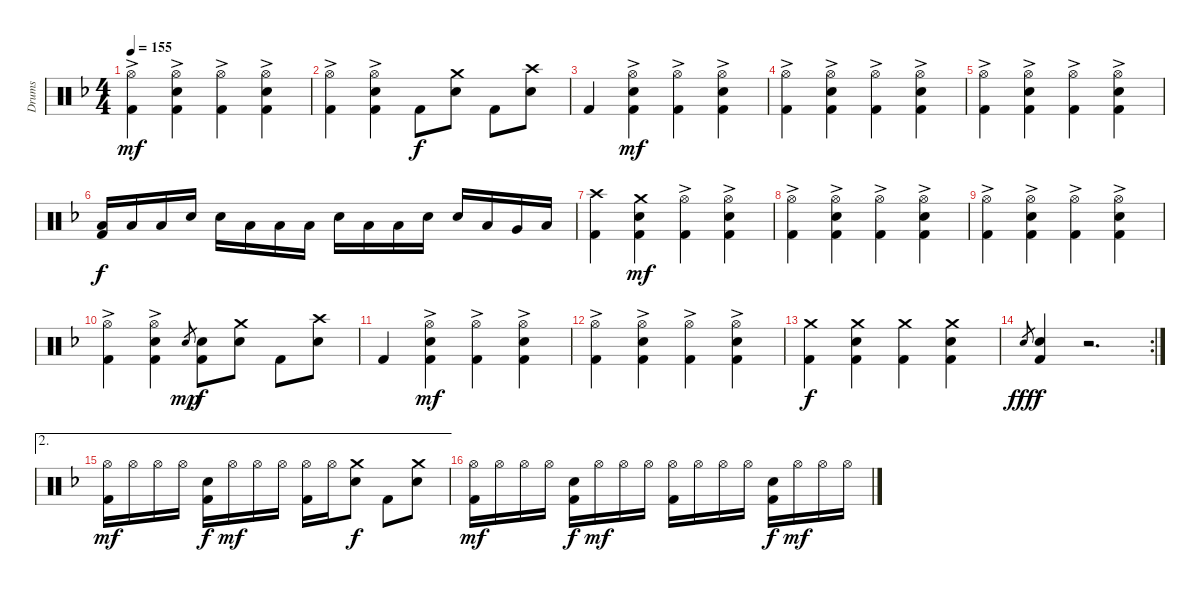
\track ("Drums" "Drums") {instrument percussion}
\staff {score}
\articulation defaults
\ts (4 4)
\tempo 155
\clef neutral
\ks dminor
("Hi-Hat (open)"{ac} "Kick (hit) 2").4{dy mf} ("Hi-Hat (open)"{ac} "Snare (hit) 2" "Kick (hit) 2").4 ("Hi-Hat (open)"{ac} "Kick (hit) 2").4 ("Hi-Hat (open)"{ac} "Snare (hit) 2" "Kick (hit) 2").4 |
("Hi-Hat (open)"{ac} "Kick (hit) 2").4 ("Hi-Hat (open)"{ac} "Snare (hit) 2" "Kick (hit) 2").4 "Kick (hit) 2".8{dy f} ("Crash medium (hit)" "Snare (hit) 2").8 "Kick (hit) 2".8 ("Crash high (hit)" "Snare (hit) 2").8 |
"Kick (hit) 2".4 ("Hi-Hat (open)"{ac} "Snare (hit) 2" "Kick (hit) 2").4{dy mf} ("Hi-Hat (open)"{ac} "Kick (hit) 2").4 ("Hi-Hat (open)"{ac} "Snare (hit) 2" "Kick (hit) 2").4 |
("Hi-Hat (open)"{ac} "Kick (hit) 2").4 ("Hi-Hat (open)"{ac} "Snare (hit) 2" "Kick (hit) 2").4 ("Hi-Hat (open)"{ac} "Kick (hit) 2").4 ("Hi-Hat (open)"{ac} "Snare (hit) 2" "Kick (hit) 2").4 |
("Hi-Hat (open)"{ac} "Kick (hit) 2").4 ("Hi-Hat (open)"{ac} "Snare (hit) 2" "Kick (hit) 2").4 ("Hi-Hat (open)"{ac} "Kick (hit) 2").4 ("Hi-Hat (open)"{ac} "Snare (hit) 2" "Kick (hit) 2").4 |
("Low Tom (hit)" "Kick (hit) 2").16{dy f} "Low Tom (hit)".16 "Low Tom (hit)".16 "Snare (hit) 2".16 "Snare (hit) 2".16 "Low Tom (hit)".16 "Low Tom (hit)".16 "Low Tom (hit)".16 "Snare (hit) 2".16 "Low Tom (hit)".16 "Low Tom (hit)".16 "Snare (hit) 2".16 "Snare (hit) 2".16 "Low Tom (hit)".16 "Very Low Tom (hit)".16 "Low Floor Tom (hit)".16 |
("Crash high (hit)" "Kick (hit) 2").4 ("Crash medium (hit)" "Snare (hit) 2" "Kick (hit) 2").4{dy mf} ("Hi-Hat (open)"{ac} "Kick (hit) 2").4 ("Hi-Hat (open)"{ac} "Snare (hit) 2" "Kick (hit) 2").4 |
("Hi-Hat (open)"{ac} "Kick (hit) 2").4 ("Hi-Hat (open)"{ac} "Snare (hit) 2" "Kick (hit) 2").4 ("Hi-Hat (open)"{ac} "Kick (hit) 2").4 ("Hi-Hat (open)"{ac} "Snare (hit) 2" "Kick (hit) 2").4 |
("Hi-Hat (open)"{ac} "Kick (hit) 2").4 ("Hi-Hat (open)"{ac} "Snare (hit) 2" "Kick (hit) 2").4 ("Hi-Hat (open)"{ac} "Kick (hit) 2").4 ("Hi-Hat (open)"{ac} "Snare (hit) 2" "Kick (hit) 2").4 |
("Hi-Hat (open)"{ac} "Kick (hit) 2").4 ("Hi-Hat (open)"{ac} "Snare (hit) 2" "Kick (hit) 2").4 "Snare (hit) 2".8{gr dy mp} ("Snare (hit) 2" "Kick (hit) 2").8{dy f} ("Crash medium (hit)" "Snare (hit) 2").8 "Kick (hit) 2".8 ("Crash high (hit)" "Snare (hit) 2").8 |
"Kick (hit) 2".4 ("Hi-Hat (open)"{ac} "Snare (hit) 2" "Kick (hit) 2").4{dy mf} ("Hi-Hat (open)"{ac} "Kick (hit) 2").4 ("Hi-Hat (open)"{ac} "Snare (hit) 2" "Kick (hit) 2").4 |
("Hi-Hat (open)"{ac} "Kick (hit) 2").4 ("Hi-Hat (open)"{ac} "Snare (hit) 2" "Kick (hit) 2").4 ("Hi-Hat (open)"{ac} "Kick (hit) 2").4 ("Hi-Hat (open)"{ac} "Snare (hit) 2" "Kick (hit) 2").4 |
("Crash medium (hit)" "Kick (hit) 2").4{dy f} ("Crash medium (hit)" "Snare (hit) 2" "Kick (hit) 2").4 ("Crash medium (hit)" "Kick (hit) 2").4 ("Crash medium (hit)" "Snare (hit) 2" "Kick (hit) 2").4 |
\rc 2 "Snare (hit) 2".8{gr dy fff}
("Snare (hit) 2" "Kick (hit) 2").4{dy f} r.2{d} |
\ae 2
("Hi-Hat (open)" "Kick (hit) 2").16{dy mf} "Hi-Hat (open)".16 "Hi-Hat (open)".16 "Hi-Hat (open)".16 ("Snare (hit) 2" "Kick (hit) 2").16{dy f} "Hi-Hat (open)".16{dy mf} "Hi-Hat (open)".16 "Hi-Hat (open)".16 ("Hi-Hat (open)" "Kick (hit) 2").16 "Hi-Hat (open)".16 ("Crash medium (hit)" "Snare (hit) 2").8{dy f} "Kick (hit) 2".8 ("Crash medium (hit)" "Snare (hit) 2").8 |
("Hi-Hat (open)" "Kick (hit) 2").16{dy mf} "Hi-Hat (open)".16 "Hi-Hat (open)".16 "Hi-Hat (open)".16 ("Snare (hit) 2" "Kick (hit) 2").16{dy f} "Hi-Hat (open)".16{dy mf} "Hi-Hat (open)".16 "Hi-Hat (open)".16 ("Hi-Hat (open)" "Kick (hit) 2").16 "Hi-Hat (open)".16 "Hi-Hat (open)".16 "Hi-Hat (open)".16 ("Snare (hit) 2" "Kick (hit) 2").16{dy f} "Hi-Hat (open)".16{dy mf} "Hi-Hat (open)".16 "Hi-Hat (open)".16
